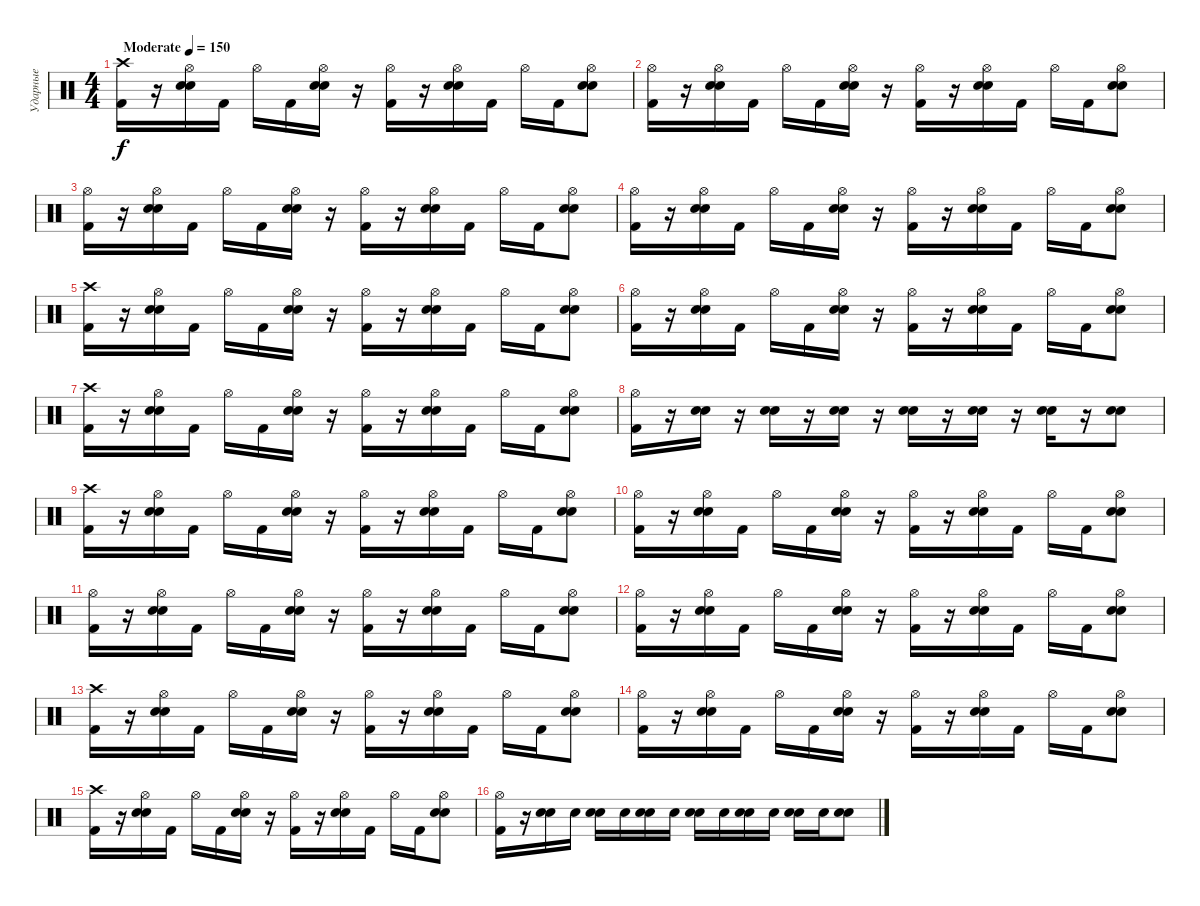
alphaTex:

\track ("Ударные" "Ударные") {instrument percussion}
\staff {score}
\articulation defaults
\ts (4 4)
\tempo (150 "Moderate")
\clef neutral
\ks c
("Crash high (hit)" "Kick (hit) 2").16{dy f} r.16 ("Hi-Hat (open)" "Electric Snare (hit)" "Snare (hit) 2").16 "Kick (hit) 2".16 "Hi-Hat (open)".16 "Kick (hit) 2".16 ("Hi-Hat (open)" "Electric Snare (hit)" "Snare (hit) 2").16 r.16 ("Hi-Hat (open)" "Kick (hit) 2").16 r.16 ("Hi-Hat (open)" "Electric Snare (hit)" "Snare (hit) 2").16 "Kick (hit) 2".16 "Hi-Hat (open)".16 "Kick (hit) 2".16 ("Hi-Hat (open)" "Electric Snare (hit)" "Snare (hit) 2").8 |
("Hi-Hat (open)" "Kick (hit) 2").16 r.16 ("Hi-Hat (open)" "Electric Snare (hit)" "Snare (hit) 2").16 "Kick (hit) 2".16 "Hi-Hat (open)".16 "Kick (hit) 2".16 ("Hi-Hat (open)" "Electric Snare (hit)" "Snare (hit) 2").16 r.16 ("Hi-Hat (open)" "Kick (hit) 2").16 r.16 ("Hi-Hat (open)" "Electric Snare (hit)" "Snare (hit) 2").16 "Kick (hit) 2".16 "Hi-Hat (open)".16 "Kick (hit) 2".16 ("Hi-Hat (open)" "Electric Snare (hit)" "Snare (hit) 2").8 |
("Hi-Hat (open)" "Kick (hit) 2").16 r.16 ("Hi-Hat (open)" "Electric Snare (hit)" "Snare (hit) 2").16 "Kick (hit) 2".16 "Hi-Hat (open)".16 "Kick (hit) 2".16 ("Hi-Hat (open)" "Electric Snare (hit)" "Snare (hit) 2").16 r.16 ("Hi-Hat (open)" "Kick (hit) 2").16 r.16 ("Hi-Hat (open)" "Electric Snare (hit)" "Snare (hit) 2").16 "Kick (hit) 2".16 "Hi-Hat (open)".16 "Kick (hit) 2".16 ("Hi-Hat (open)" "Electric Snare (hit)" "Snare (hit) 2").8 |
("Hi-Hat (open)" "Kick (hit) 2").16 r.16 ("Hi-Hat (open)" "Electric Snare (hit)" "Snare (hit) 2").16 "Kick (hit) 2".16 "Hi-Hat (open)".16 "Kick (hit) 2".16 ("Hi-Hat (open)" "Electric Snare (hit)" "Snare (hit) 2").16 r.16 ("Hi-Hat (open)" "Kick (hit) 2").16 r.16 ("Hi-Hat (open)" "Electric Snare (hit)" "Snare (hit) 2").16 "Kick (hit) 2".16 "Hi-Hat (open)".16 "Kick (hit) 2".16 ("Hi-Hat (open)" "Electric Snare (hit)" "Snare (hit) 2").8 |
("Crash high (hit)" "Kick (hit) 2").16 r.16 ("Hi-Hat (open)" "Electric Snare (hit)" "Snare (hit) 2").16 "Kick (hit) 2".16 "Hi-Hat (open)".16 "Kick (hit) 2".16 ("Hi-Hat (open)" "Electric Snare (hit)" "Snare (hit) 2").16 r.16 ("Hi-Hat (open)" "Kick (hit) 2").16 r.16 ("Hi-Hat (open)" "Electric Snare (hit)" "Snare (hit) 2").16 "Kick (hit) 2".16 "Hi-Hat (open)".16 "Kick (hit) 2".16 ("Hi-Hat (open)" "Electric Snare (hit)" "Snare (hit) 2").8 |
("Hi-Hat (open)" "Kick (hit) 2").16 r.16 ("Hi-Hat (open)" "Electric Snare (hit)" "Snare (hit) 2").16 "Kick (hit) 2".16 "Hi-Hat (open)".16 "Kick (hit) 2".16 ("Hi-Hat (open)" "Electric Snare (hit)" "Snare (hit) 2").16 r.16 ("Hi-Hat (open)" "Kick (hit) 2").16 r.16 ("Hi-Hat (open)" "Electric Snare (hit)" "Snare (hit) 2").16 "Kick (hit) 2".16 "Hi-Hat (open)".16 "Kick (hit) 2".16 ("Hi-Hat (open)" "Electric Snare (hit)" "Snare (hit) 2").8 |
("Crash high (hit)" "Kick (hit) 2").16 r.16 ("Hi-Hat (open)" "Electric Snare (hit)" "Snare (hit) 2").16 "Kick (hit) 2".16 "Hi-Hat (open)".16 "Kick (hit) 2".16 ("Hi-Hat (open)" "Electric Snare (hit)" "Snare (hit) 2").16 r.16 ("Hi-Hat (open)" "Kick (hit) 2").16 r.16 ("Hi-Hat (open)" "Electric Snare (hit)" "Snare (hit) 2").16 "Kick (hit) 2".16 "Hi-Hat (open)".16 "Kick (hit) 2".16 ("Hi-Hat (open)" "Electric Snare (hit)" "Snare (hit) 2").8 |
("Hi-Hat (open)" "Kick (hit) 2").16 r.16 ("Electric Snare (hit)" "Snare (hit) 2").16 r.16 ("Electric Snare (hit)" "Snare (hit) 2").16 r.16 ("Electric Snare (hit)" "Snare (hit) 2").16 r.16 ("Electric Snare (hit)" "Snare (hit) 2").16 r.16 ("Electric Snare (hit)" "Snare (hit) 2").16 r.16 ("Electric Snare (hit)" "Snare (hit) 2").16 r.16 ("Electric Snare (hit)" "Snare (hit) 2").8 |
("Crash high (hit)" "Kick (hit) 2").16 r.16 ("Hi-Hat (open)" "Electric Snare (hit)" "Snare (hit) 2").16 "Kick (hit) 2".16 "Hi-Hat (open)".16 "Kick (hit) 2".16 ("Hi-Hat (open)" "Electric Snare (hit)" "Snare (hit) 2").16 r.16 ("Hi-Hat (open)" "Kick (hit) 2").16 r.16 ("Hi-Hat (open)" "Electric Snare (hit)" "Snare (hit) 2").16 "Kick (hit) 2".16 "Hi-Hat (open)".16 "Kick (hit) 2".16 ("Hi-Hat (open)" "Electric Snare (hit)" "Snare (hit) 2").8 |
("Hi-Hat (open)" "Kick (hit) 2").16 r.16 ("Hi-Hat (open)" "Electric Snare (hit)" "Snare (hit) 2").16 "Kick (hit) 2".16 "Hi-Hat (open)".16 "Kick (hit) 2".16 ("Hi-Hat (open)" "Electric Snare (hit)" "Snare (hit) 2").16 r.16 ("Hi-Hat (open)" "Kick (hit) 2").16 r.16 ("Hi-Hat (open)" "Electric Snare (hit)" "Snare (hit) 2").16 "Kick (hit) 2".16 "Hi-Hat (open)".16 "Kick (hit) 2".16 ("Hi-Hat (open)" "Electric Snare (hit)" "Snare (hit) 2").8 |
("Hi-Hat (open)" "Kick (hit) 2").16 r.16 ("Hi-Hat (open)" "Electric Snare (hit)" "Snare (hit) 2").16 "Kick (hit) 2".16 "Hi-Hat (open)".16 "Kick (hit) 2".16 ("Hi-Hat (open)" "Electric Snare (hit)" "Snare (hit) 2").16 r.16 ("Hi-Hat (open)" "Kick (hit) 2").16 r.16 ("Hi-Hat (open)" "Electric Snare (hit)" "Snare (hit) 2").16 "Kick (hit) 2".16 "Hi-Hat (open)".16 "Kick (hit) 2".16 ("Hi-Hat (open)" "Electric Snare (hit)" "Snare (hit) 2").8 |
("Hi-Hat (open)" "Kick (hit) 2").16 r.16 ("Hi-Hat (open)" "Electric Snare (hit)" "Snare (hit) 2").16 "Kick (hit) 2".16 "Hi-Hat (open)".16 "Kick (hit) 2".16 ("Hi-Hat (open)" "Electric Snare (hit)" "Snare (hit) 2").16 r.16 ("Hi-Hat (open)" "Kick (hit) 2").16 r.16 ("Hi-Hat (open)" "Electric Snare (hit)" "Snare (hit) 2").16 "Kick (hit) 2".16 "Hi-Hat (open)".16 "Kick (hit) 2".16 ("Hi-Hat (open)" "Electric Snare (hit)" "Snare (hit) 2").8 |
("Crash high (hit)" "Kick (hit) 2").16 r.16 ("Hi-Hat (open)" "Electric Snare (hit)" "Snare (hit) 2").16 "Kick (hit) 2".16 "Hi-Hat (open)".16 "Kick (hit) 2".16 ("Hi-Hat (open)" "Electric Snare (hit)" "Snare (hit) 2").16 r.16 ("Hi-Hat (open)" "Kick (hit) 2").16 r.16 ("Hi-Hat (open)" "Electric Snare (hit)" "Snare (hit) 2").16 "Kick (hit) 2".16 "Hi-Hat (open)".16 "Kick (hit) 2".16 ("Hi-Hat (open)" "Electric Snare (hit)" "Snare (hit) 2").8 |
("Hi-Hat (open)" "Kick (hit) 2").16 r.16 ("Hi-Hat (open)" "Electric Snare (hit)" "Snare (hit) 2").16 "Kick (hit) 2".16 "Hi-Hat (open)".16 "Kick (hit) 2".16 ("Hi-Hat (open)" "Electric Snare (hit)" "Snare (hit) 2").16 r.16 ("Hi-Hat (open)" "Kick (hit) 2").16 r.16 ("Hi-Hat (open)" "Electric Snare (hit)" "Snare (hit) 2").16 "Kick (hit) 2".16 "Hi-Hat (open)".16 "Kick (hit) 2".16 ("Hi-Hat (open)" "Electric Snare (hit)" "Snare (hit) 2").8 |
("Crash high (hit)" "Kick (hit) 2").16 r.16 ("Hi-Hat (open)" "Electric Snare (hit)" "Snare (hit) 2").16 "Kick (hit) 2".16 "Hi-Hat (open)".16 "Kick (hit) 2".16 ("Hi-Hat (open)" "Electric Snare (hit)" "Snare (hit) 2").16 r.16 ("Hi-Hat (open)" "Kick (hit) 2").16 r.16 ("Hi-Hat (open)" "Electric Snare (hit)" "Snare (hit) 2").16 "Kick (hit) 2".16 "Hi-Hat (open)".16 "Kick (hit) 2".16 ("Hi-Hat (open)" "Electric Snare (hit)" "Snare (hit) 2").8 |
("Hi-Hat (open)" "Kick (hit) 2").16 r.16 ("Electric Snare (hit)" "Snare (hit) 2").16 "Electric Snare (hit)".16 ("Electric Snare (hit)" "Snare (hit) 2").16 "Electric Snare (hit)".16 ("Electric Snare (hit)" "Snare (hit) 2").16 "Electric Snare (hit)".16 ("Electric Snare (hit)" "Snare (hit) 2").16 "Electric Snare (hit)".16 ("Electric Snare (hit)" "Snare (hit) 2").16 "Electric Snare (hit)".16 ("Electric Snare (hit)" "Snare (hit) 2").16 "Electric Snare (hit)".16 ("Electric Snare (hit)" "Snare (hit) 2").8
